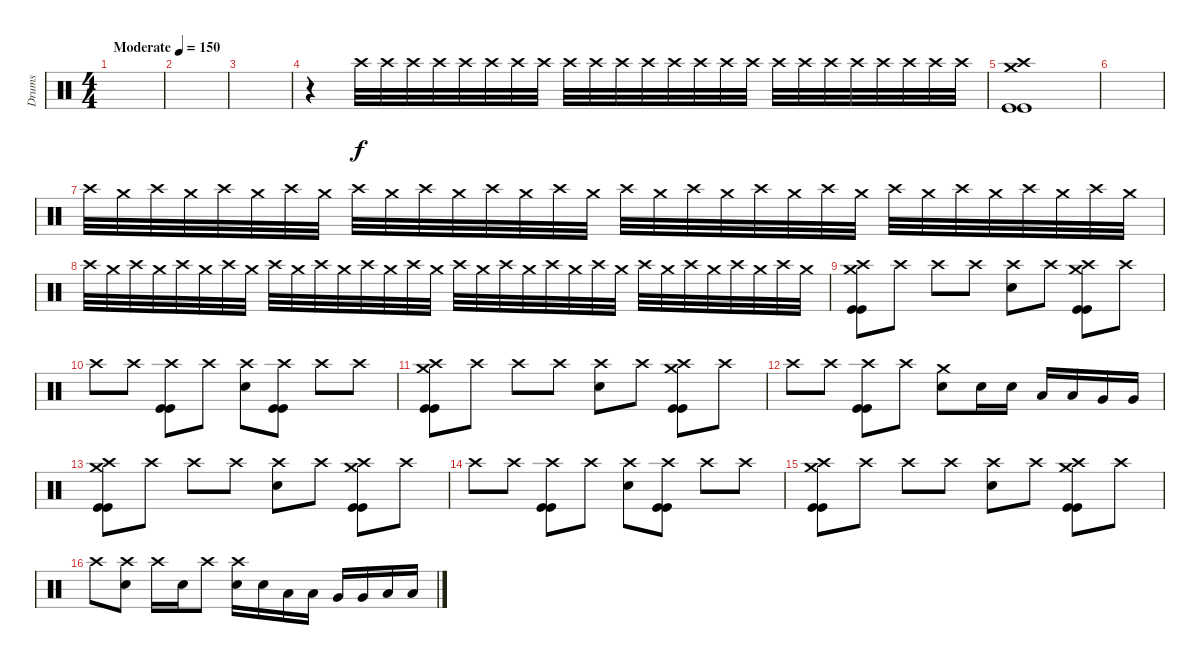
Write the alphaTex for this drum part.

\track ("Drums" "Drums") {instrument percussion}
\staff {score}
\articulation defaults
\ts (4 4)
\tempo (150 "Moderate")
\clef neutral
\ks c
|
|
|
r.4{volume 0} "Crash high (hit)".32{volume 16} "Crash high (hit)".32 "Crash high (hit)".32 "Crash high (hit)".32 "Crash high (hit)".32 "Crash high (hit)".32 "Crash high (hit)".32 "Crash high (hit)".32 "Crash high (hit)".32 "Crash high (hit)".32 "Crash high (hit)".32 "Crash high (hit)".32 "Crash high (hit)".32 "Crash high (hit)".32 "Crash high (hit)".32 "Crash high (hit)".32 "Crash high (hit)".32 "Crash high (hit)".32 "Crash high (hit)".32 "Crash high (hit)".32 "Crash high (hit)".32 "Crash high (hit)".32 "Crash high (hit)".32 "Crash high (hit)".32 |
("Crash high (hit)" "Crash medium (hit)" "Kick (hit)" "Kick (hit)").1 |
|
"Crash high (hit)".32{volume 0} "Crash medium (hit)".32{volume 16} "Crash high (hit)".32 "Crash medium (hit)".32 "Crash high (hit)".32 "Crash medium (hit)".32 "Crash high (hit)".32 "Crash medium (hit)".32 "Crash high (hit)".32 "Crash medium (hit)".32 "Crash high (hit)".32 "Crash medium (hit)".32 "Crash high (hit)".32 "Crash medium (hit)".32 "Crash high (hit)".32 "Crash medium (hit)".32 "Crash high (hit)".32 "Crash medium (hit)".32 "Crash high (hit)".32 "Crash medium (hit)".32 "Crash high (hit)".32 "Crash medium (hit)".32 "Crash high (hit)".32 "Crash medium (hit)".32 "Crash high (hit)".32 "Crash medium (hit)".32 "Crash high (hit)".32 "Crash medium (hit)".32 "Crash high (hit)".32 "Crash medium (hit)".32 "Crash high (hit)".32 "Crash medium (hit)".32 |
"Crash high (hit)".32 "Crash medium (hit)".32 "Crash high (hit)".32 "Crash medium (hit)".32 "Crash high (hit)".32 "Crash medium (hit)".32 "Crash high (hit)".32 "Crash medium (hit)".32 "Crash high (hit)".32 "Crash medium (hit)".32 "Crash high (hit)".32 "Crash medium (hit)".32 "Crash high (hit)".32 "Crash medium (hit)".32 "Crash high (hit)".32 "Crash medium (hit)".32 "Crash high (hit)".32 "Crash medium (hit)".32 "Crash high (hit)".32 "Crash medium (hit)".32 "Crash high (hit)".32 "Crash medium (hit)".32 "Crash high (hit)".32 "Crash medium (hit)".32 "Crash high (hit)".32 "Crash medium (hit)".32 "Crash high (hit)".32 "Crash medium (hit)".32 "Crash high (hit)".32 "Crash medium (hit)".32 "Crash high (hit)".32 "Crash medium (hit)".32 |
("Crash high (hit)" "Crash medium (hit)" "Kick (hit)" "Kick (hit)").8 "Crash high (hit)".8 "Crash high (hit)".8 "Crash high (hit)".8 ("Crash high (hit)" "Electric Snare (hit)").8 "Crash high (hit)".8 ("Crash high (hit)" "Crash medium (hit)" "Kick (hit)" "Kick (hit)").8 "Crash high (hit)".8 |
"Crash high (hit)".8 "Crash high (hit)".8 ("Crash high (hit)" "Kick (hit)" "Kick (hit)").8 "Crash high (hit)".8 ("Crash high (hit)" "Electric Snare (hit)").8 ("Crash high (hit)" "Kick (hit)" "Kick (hit)").8 "Crash high (hit)".8 "Crash high (hit)".8 |
("Crash high (hit)" "Crash medium (hit)" "Kick (hit)" "Kick (hit)").8 "Crash high (hit)".8 "Crash high (hit)".8 "Crash high (hit)".8 ("Crash high (hit)" "Electric Snare (hit)").8 "Crash high (hit)".8 ("Crash high (hit)" "Crash medium (hit)" "Kick (hit)" "Kick (hit)").8 "Crash high (hit)".8 |
"Crash high (hit)".8 "Crash high (hit)".8 ("Crash high (hit)" "Kick (hit)" "Kick (hit)").8 "Crash high (hit)".8 ("Crash medium (hit)" "Electric Snare (hit)").8 "Electric Snare (hit)".16 "Electric Snare (hit)".16 "Low Tom (hit)".16 "Low Tom (hit)".16 "Very Low Tom (hit)".16 "Very Low Tom (hit)".16 |
("Crash high (hit)" "Crash medium (hit)" "Kick (hit)" "Kick (hit)").8 "Crash high (hit)".8 "Crash high (hit)".8 "Crash high (hit)".8 ("Crash high (hit)" "Electric Snare (hit)").8 "Crash high (hit)".8 ("Crash high (hit)" "Crash medium (hit)" "Kick (hit)" "Kick (hit)").8 "Crash high (hit)".8 |
"Crash high (hit)".8 "Crash high (hit)".8 ("Crash high (hit)" "Kick (hit)" "Kick (hit)").8 "Crash high (hit)".8 ("Crash high (hit)" "Electric Snare (hit)").8 ("Crash high (hit)" "Kick (hit)" "Kick (hit)").8 "Crash high (hit)".8 "Crash high (hit)".8 |
("Crash high (hit)" "Crash medium (hit)" "Kick (hit)" "Kick (hit)").8 "Crash high (hit)".8 "Crash high (hit)".8 "Crash high (hit)".8 ("Crash high (hit)" "Electric Snare (hit)").8 "Crash high (hit)".8 ("Crash high (hit)" "Crash medium (hit)" "Kick (hit)" "Kick (hit)").8 "Crash high (hit)".8 |
"Crash high (hit)".8 ("Crash high (hit)" "Electric Snare (hit)").8 "Crash high (hit)".16 "Electric Snare (hit)".16 "Crash high (hit)".8 ("Crash high (hit)" "Electric Snare (hit)").16 "Electric Snare (hit)".16 "Low Tom (hit)".16 "Low Tom (hit)".16 "Very Low Tom (hit)".16 "Very Low Tom (hit)".16 "Low Floor Tom (hit)".16 "Low Floor Tom (hit)".16
